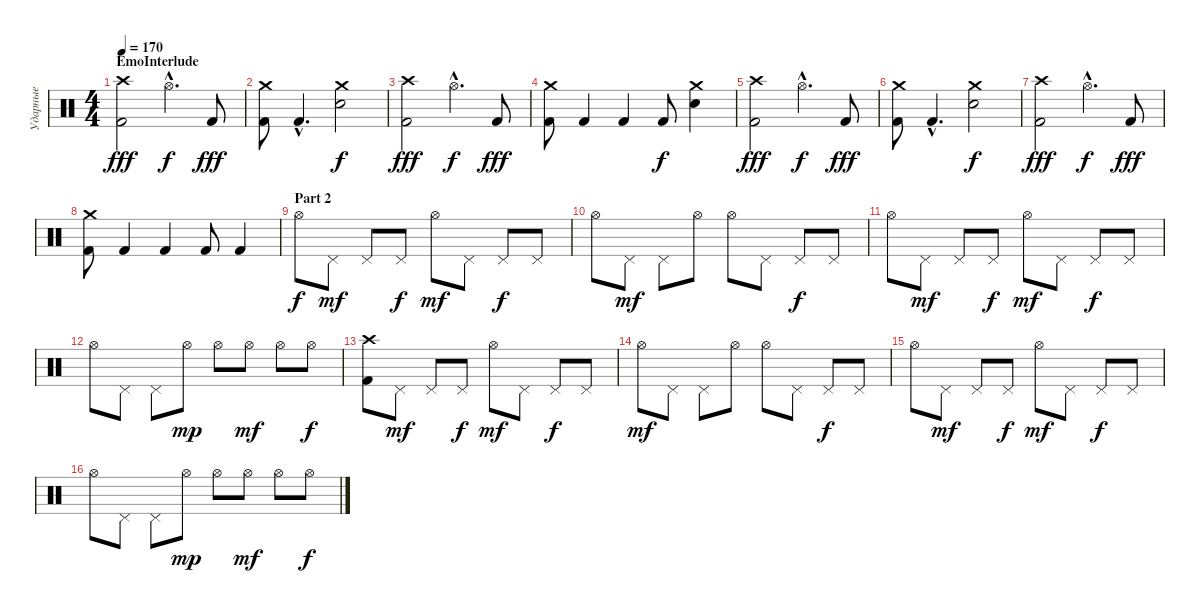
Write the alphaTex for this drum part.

\track ("Ударные" "Ударные") {instrument percussion}
\staff {score}
\articulation defaults
\ts (4 4)
\section ("" "EmoInterlude")
\tempo 170
\clef neutral
\ks c
("Kick (hit) 2" "Crash high (hit)").2{dy fff} "Hi-Hat (open)"{hac}.4{d dy f} "Kick (hit) 2".8{dy fff} |
("Kick (hit) 2" "Crash medium (hit)").8 "Kick (hit) 2"{hac}.4{d} ("Snare (hit) 2" "Crash medium (hit)").2{dy f} |
("Kick (hit) 2" "Crash high (hit)").2{dy fff} "Hi-Hat (open)"{hac}.4{d dy f} "Kick (hit) 2".8{dy fff} |
("Kick (hit) 2" "Crash medium (hit)").8 "Kick (hit) 2".4 "Kick (hit) 2".4 "Kick (hit) 2".8{dy f} ("Snare (hit) 2" "Crash medium (hit)").4 |
("Kick (hit) 2" "Crash high (hit)").2{dy fff} "Hi-Hat (open)"{hac}.4{d dy f} "Kick (hit) 2".8{dy fff} |
("Kick (hit) 2" "Crash medium (hit)").8 "Kick (hit) 2"{hac}.4{d} ("Snare (hit) 2" "Crash medium (hit)").2{dy f} |
("Kick (hit) 2" "Crash high (hit)").2{dy fff} "Hi-Hat (open)"{hac}.4{d dy f} "Kick (hit) 2".8{dy fff} |
("Kick (hit) 2" "Crash medium (hit)").8 "Kick (hit) 2".4 "Kick (hit) 2".4 "Kick (hit) 2".8 "Kick (hit) 2".4 |
\section ("" "Part 2")
"Hi-Hat (open)".8{dy f} "Pedal Hi-Hat (hit)".8{dy mf} "Pedal Hi-Hat (hit)".8 "Pedal Hi-Hat (hit)".8{dy f} "Hi-Hat (open)".8{dy mf} "Pedal Hi-Hat (hit)".8 "Pedal Hi-Hat (hit)".8{dy f} "Pedal Hi-Hat (hit)".8 |
"Hi-Hat (open)".8 "Pedal Hi-Hat (hit)".8{dy mf} "Pedal Hi-Hat (hit)".8 "Hi-Hat (open)".8 "Hi-Hat (open)".8 "Pedal Hi-Hat (hit)".8 "Pedal Hi-Hat (hit)".8{dy f} "Pedal Hi-Hat (hit)".8 |
"Hi-Hat (open)".8 "Pedal Hi-Hat (hit)".8{dy mf} "Pedal Hi-Hat (hit)".8 "Pedal Hi-Hat (hit)".8{dy f} "Hi-Hat (open)".8{dy mf} "Pedal Hi-Hat (hit)".8 "Pedal Hi-Hat (hit)".8{dy f} "Pedal Hi-Hat (hit)".8 |
"Hi-Hat (open)".8 "Pedal Hi-Hat (hit)".8 "Pedal Hi-Hat (hit)".8 "Hi-Hat (open)".8{dy mp} "Hi-Hat (open)".8 "Hi-Hat (open)".8{dy mf} "Hi-Hat (open)".8 "Hi-Hat (open)".8{dy f} |
("Kick (hit) 2" "Crash high (hit)").8 "Pedal Hi-Hat (hit)".8{dy mf} "Pedal Hi-Hat (hit)".8 "Pedal Hi-Hat (hit)".8{dy f} "Hi-Hat (open)".8{dy mf} "Pedal Hi-Hat (hit)".8 "Pedal Hi-Hat (hit)".8{dy f} "Pedal Hi-Hat (hit)".8 |
"Hi-Hat (open)".8{dy mf} "Pedal Hi-Hat (hit)".8 "Pedal Hi-Hat (hit)".8 "Hi-Hat (open)".8 "Hi-Hat (open)".8 "Pedal Hi-Hat (hit)".8 "Pedal Hi-Hat (hit)".8{dy f} "Pedal Hi-Hat (hit)".8 |
"Hi-Hat (open)".8 "Pedal Hi-Hat (hit)".8{dy mf} "Pedal Hi-Hat (hit)".8 "Pedal Hi-Hat (hit)".8{dy f} "Hi-Hat (open)".8{dy mf} "Pedal Hi-Hat (hit)".8 "Pedal Hi-Hat (hit)".8{dy f} "Pedal Hi-Hat (hit)".8 |
"Hi-Hat (open)".8 "Pedal Hi-Hat (hit)".8 "Pedal Hi-Hat (hit)".8 "Hi-Hat (open)".8{dy mp} "Hi-Hat (open)".8 "Hi-Hat (open)".8{dy mf} "Hi-Hat (open)".8 "Hi-Hat (open)".8{dy f}
